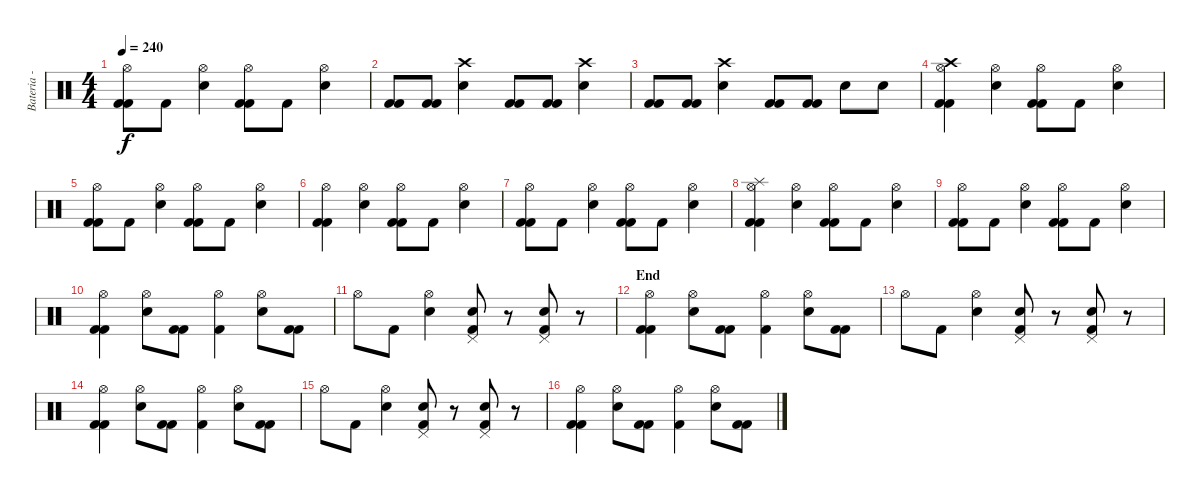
\track ("Bateria - Larzon" "Bateria - ") {instrument percussion}
\staff {score}
\articulation defaults
\ts (4 4)
\tempo 240
\clef neutral
\ks c
("Kick (hit) 2" "Kick (hit) 2" "Hi-Hat (open)").8{dy f volume 16} "Kick (hit) 2".8 ("Snare (hit) 2" "Hi-Hat (open)").4 ("Kick (hit) 2" "Kick (hit) 2" "Hi-Hat (open)").8{volume 12} "Kick (hit) 2".8 ("Snare (hit) 2" "Hi-Hat (open)").4{volume 12} |
("Kick (hit) 2" "Kick (hit) 2").8{volume 16} ("Kick (hit) 2" "Kick (hit) 2").8 ("Snare (hit) 2" "Crash high (hit)").4 ("Kick (hit) 2" "Kick (hit) 2").8 ("Kick (hit) 2" "Kick (hit) 2").8 ("Snare (hit) 2" "Crash high (hit)").4 |
("Kick (hit) 2" "Kick (hit) 2").8 ("Kick (hit) 2" "Kick (hit) 2").8 ("Snare (hit) 2" "Crash high (hit)").4 ("Kick (hit) 2" "Kick (hit) 2").8 ("Kick (hit) 2" "Kick (hit) 2").8 "Snare (hit) 2".8 "Snare (hit) 2".8 |
("Kick (hit) 2" "Kick (hit) 2" "Crash high (hit)" "Hi-Hat (open)").4 ("Snare (hit) 2" "Hi-Hat (open)").4 ("Kick (hit) 2" "Hi-Hat (open)" "Kick (hit) 2").8{volume 12} "Kick (hit) 2".8 ("Snare (hit) 2" "Hi-Hat (open)").4{volume 12} |
("Kick (hit) 2" "Kick (hit) 2" "Hi-Hat (open)").8{volume 16} "Kick (hit) 2".8 ("Snare (hit) 2" "Hi-Hat (open)").4 ("Kick (hit) 2" "Kick (hit) 2" "Hi-Hat (open)").8{volume 12} "Kick (hit) 2".8 ("Snare (hit) 2" "Hi-Hat (open)").4{volume 12} |
("Kick (hit) 2" "Kick (hit) 2" "Hi-Hat (open)").4{volume 16} ("Snare (hit) 2" "Hi-Hat (open)").4 ("Kick (hit) 2" "Hi-Hat (open)" "Kick (hit) 2").8{volume 12} "Kick (hit) 2".8 ("Snare (hit) 2" "Hi-Hat (open)").4{volume 12} |
("Kick (hit) 2" "Kick (hit) 2" "Hi-Hat (open)").8{volume 16} "Kick (hit) 2".8 ("Snare (hit) 2" "Hi-Hat (open)").4 ("Kick (hit) 2" "Kick (hit) 2" "Hi-Hat (open)").8{volume 12} "Kick (hit) 2".8 ("Snare (hit) 2" "Hi-Hat (open)").4{volume 12} |
("Kick (hit) 2" "Kick (hit) 2" "Splash (hit)" "Hi-Hat (open)").4{volume 16} ("Snare (hit) 2" "Hi-Hat (open)").4 ("Kick (hit) 2" "Hi-Hat (open)" "Kick (hit) 2").8{volume 12} "Kick (hit) 2".8 ("Snare (hit) 2" "Hi-Hat (open)").4{volume 12} |
("Kick (hit) 2" "Kick (hit) 2" "Hi-Hat (open)").8{volume 16} "Kick (hit) 2".8 ("Snare (hit) 2" "Hi-Hat (open)").4 ("Kick (hit) 2" "Kick (hit) 2" "Hi-Hat (open)").8{volume 12} "Kick (hit) 2".8 ("Snare (hit) 2" "Hi-Hat (open)").4{volume 12} |
("Kick (hit) 2" "Hi-Hat (open)" "Kick (hit) 2").4{volume 16} ("Hi-Hat (open)" "Snare (hit) 2").8 ("Kick (hit) 2" "Kick (hit) 2").8 ("Kick (hit) 2" "Hi-Hat (open)").4 ("Hi-Hat (open)" "Snare (hit) 2").8 ("Kick (hit) 2" "Kick (hit) 2").8 |
"Hi-Hat (open)".8 "Kick (hit) 2".8 ("Hi-Hat (open)" "Snare (hit) 2").4 ("Pedal Hi-Hat (hit)" "Snare (hit) 2" "Kick (hit) 2").8 r.8 ("Pedal Hi-Hat (hit)" "Snare (hit) 2" "Kick (hit) 2").8 r.8 |
\section ("" "End")
("Kick (hit) 2" "Hi-Hat (open)" "Kick (hit) 2").4{volume 16} ("Hi-Hat (open)" "Snare (hit) 2").8 ("Kick (hit) 2" "Kick (hit) 2").8 ("Kick (hit) 2" "Hi-Hat (open)").4 ("Hi-Hat (open)" "Snare (hit) 2").8 ("Kick (hit) 2" "Kick (hit) 2").8 |
"Hi-Hat (open)".8 "Kick (hit) 2".8 ("Hi-Hat (open)" "Snare (hit) 2").4 ("Pedal Hi-Hat (hit)" "Snare (hit) 2" "Kick (hit) 2").8 r.8 ("Pedal Hi-Hat (hit)" "Snare (hit) 2" "Kick (hit) 2").8 r.8 |
("Kick (hit) 2" "Hi-Hat (open)" "Kick (hit) 2").4{volume 16} ("Hi-Hat (open)" "Snare (hit) 2").8 ("Kick (hit) 2" "Kick (hit) 2").8 ("Kick (hit) 2" "Hi-Hat (open)").4 ("Hi-Hat (open)" "Snare (hit) 2").8 ("Kick (hit) 2" "Kick (hit) 2").8 |
"Hi-Hat (open)".8 "Kick (hit) 2".8 ("Hi-Hat (open)" "Snare (hit) 2").4 ("Pedal Hi-Hat (hit)" "Snare (hit) 2" "Kick (hit) 2").8 r.8 ("Pedal Hi-Hat (hit)" "Snare (hit) 2" "Kick (hit) 2").8 r.8 |
("Kick (hit) 2" "Hi-Hat (open)" "Kick (hit) 2").4{volume 16} ("Hi-Hat (open)" "Snare (hit) 2").8 ("Kick (hit) 2" "Kick (hit) 2").8 ("Kick (hit) 2" "Hi-Hat (open)").4 ("Hi-Hat (open)" "Snare (hit) 2").8 ("Kick (hit) 2" "Kick (hit) 2").8
